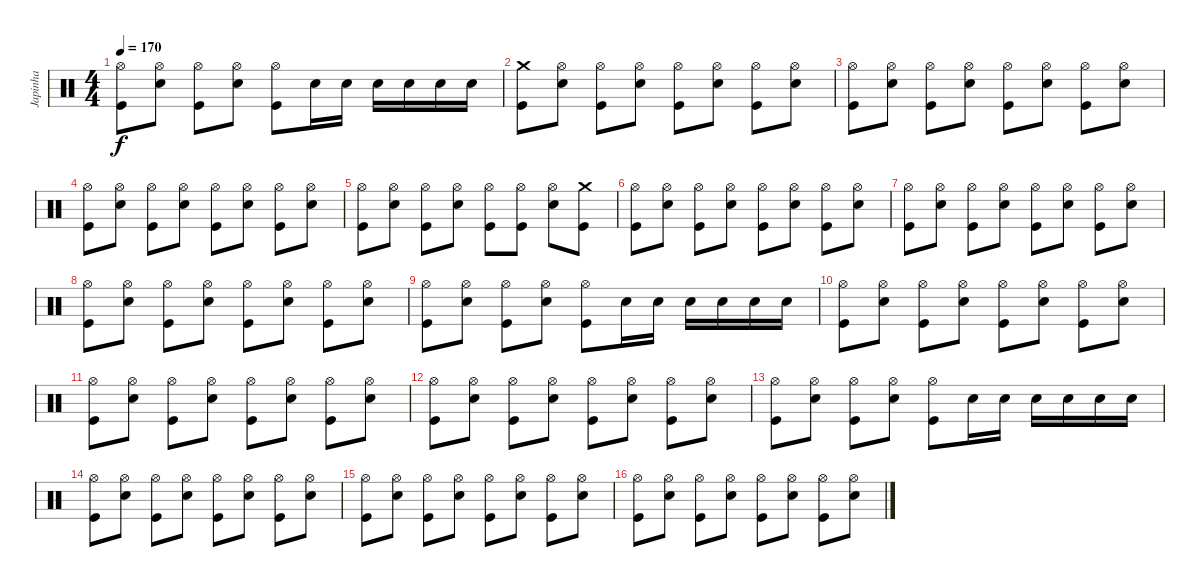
\track ("Japinha" "Japinha") {instrument percussion}
\staff {score}
\articulation defaults
\ts (4 4)
\tempo 170
\clef neutral
\ks c
("Hi-Hat (open)" "Kick (hit)").8{dy f} ("Hi-Hat (open)" "Electric Snare (hit)").8 ("Hi-Hat (open)" "Kick (hit)").8 ("Hi-Hat (open)" "Electric Snare (hit)").8 ("Hi-Hat (open)" "Kick (hit)").8 "Electric Snare (hit)".16 "Electric Snare (hit)".16 "Electric Snare (hit)".16 "Electric Snare (hit)".16 "Electric Snare (hit)".16 "Electric Snare (hit)".16 |
("Crash medium (hit)" "Kick (hit)").8 ("Hi-Hat (open)" "Electric Snare (hit)").8 ("Hi-Hat (open)" "Kick (hit)").8 ("Hi-Hat (open)" "Electric Snare (hit)").8 ("Hi-Hat (open)" "Kick (hit)").8 ("Hi-Hat (open)" "Electric Snare (hit)").8 ("Hi-Hat (open)" "Kick (hit)").8 ("Hi-Hat (open)" "Electric Snare (hit)").8 |
("Hi-Hat (open)" "Kick (hit)").8 ("Hi-Hat (open)" "Electric Snare (hit)").8 ("Hi-Hat (open)" "Kick (hit)").8 ("Hi-Hat (open)" "Electric Snare (hit)").8 ("Hi-Hat (open)" "Kick (hit)").8 ("Hi-Hat (open)" "Electric Snare (hit)").8 ("Hi-Hat (open)" "Kick (hit)").8 ("Hi-Hat (open)" "Electric Snare (hit)").8 |
("Hi-Hat (open)" "Kick (hit)").8 ("Hi-Hat (open)" "Electric Snare (hit)").8 ("Hi-Hat (open)" "Kick (hit)").8 ("Hi-Hat (open)" "Electric Snare (hit)").8 ("Hi-Hat (open)" "Kick (hit)").8 ("Hi-Hat (open)" "Electric Snare (hit)").8 ("Hi-Hat (open)" "Kick (hit)").8 ("Hi-Hat (open)" "Electric Snare (hit)").8 |
("Hi-Hat (open)" "Kick (hit)").8 ("Hi-Hat (open)" "Electric Snare (hit)").8 ("Hi-Hat (open)" "Kick (hit)").8 ("Hi-Hat (open)" "Electric Snare (hit)").8 ("Hi-Hat (open)" "Kick (hit)").8 ("Hi-Hat (open)" "Kick (hit)").8 ("Hi-Hat (open)" "Electric Snare (hit)").8 ("Crash medium (hit)" "Kick (hit)").8 |
("Hi-Hat (open)" "Kick (hit)").8 ("Hi-Hat (open)" "Electric Snare (hit)").8 ("Hi-Hat (open)" "Kick (hit)").8 ("Hi-Hat (open)" "Electric Snare (hit)").8 ("Hi-Hat (open)" "Kick (hit)").8 ("Hi-Hat (open)" "Electric Snare (hit)").8 ("Hi-Hat (open)" "Kick (hit)").8 ("Hi-Hat (open)" "Electric Snare (hit)").8 |
("Hi-Hat (open)" "Kick (hit)").8 ("Hi-Hat (open)" "Electric Snare (hit)").8 ("Hi-Hat (open)" "Kick (hit)").8 ("Hi-Hat (open)" "Electric Snare (hit)").8 ("Hi-Hat (open)" "Kick (hit)").8 ("Hi-Hat (open)" "Electric Snare (hit)").8 ("Hi-Hat (open)" "Kick (hit)").8 ("Hi-Hat (open)" "Electric Snare (hit)").8 |
("Hi-Hat (open)" "Kick (hit)").8 ("Hi-Hat (open)" "Electric Snare (hit)").8 ("Hi-Hat (open)" "Kick (hit)").8 ("Hi-Hat (open)" "Electric Snare (hit)").8 ("Hi-Hat (open)" "Kick (hit)").8 ("Hi-Hat (open)" "Electric Snare (hit)").8 ("Hi-Hat (open)" "Kick (hit)").8 ("Hi-Hat (open)" "Electric Snare (hit)").8 |
("Hi-Hat (open)" "Kick (hit)").8 ("Hi-Hat (open)" "Electric Snare (hit)").8 ("Hi-Hat (open)" "Kick (hit)").8 ("Hi-Hat (open)" "Electric Snare (hit)").8 ("Hi-Hat (open)" "Kick (hit)").8 "Electric Snare (hit)".16 "Electric Snare (hit)".16 "Electric Snare (hit)".16 "Electric Snare (hit)".16 "Electric Snare (hit)".16 "Electric Snare (hit)".16 |
("Hi-Hat (open)" "Kick (hit)").8 ("Hi-Hat (open)" "Electric Snare (hit)").8 ("Hi-Hat (open)" "Kick (hit)").8 ("Hi-Hat (open)" "Electric Snare (hit)").8 ("Hi-Hat (open)" "Kick (hit)").8 ("Hi-Hat (open)" "Electric Snare (hit)").8 ("Hi-Hat (open)" "Kick (hit)").8 ("Hi-Hat (open)" "Electric Snare (hit)").8 |
("Hi-Hat (open)" "Kick (hit)").8 ("Hi-Hat (open)" "Electric Snare (hit)").8 ("Hi-Hat (open)" "Kick (hit)").8 ("Hi-Hat (open)" "Electric Snare (hit)").8 ("Hi-Hat (open)" "Kick (hit)").8 ("Hi-Hat (open)" "Electric Snare (hit)").8 ("Hi-Hat (open)" "Kick (hit)").8 ("Hi-Hat (open)" "Electric Snare (hit)").8 |
("Hi-Hat (open)" "Kick (hit)").8 ("Hi-Hat (open)" "Electric Snare (hit)").8 ("Hi-Hat (open)" "Kick (hit)").8 ("Hi-Hat (open)" "Electric Snare (hit)").8 ("Hi-Hat (open)" "Kick (hit)").8 ("Hi-Hat (open)" "Electric Snare (hit)").8 ("Hi-Hat (open)" "Kick (hit)").8 ("Hi-Hat (open)" "Electric Snare (hit)").8 |
("Hi-Hat (open)" "Kick (hit)").8 ("Hi-Hat (open)" "Electric Snare (hit)").8 ("Hi-Hat (open)" "Kick (hit)").8 ("Hi-Hat (open)" "Electric Snare (hit)").8 ("Hi-Hat (open)" "Kick (hit)").8 "Electric Snare (hit)".16 "Electric Snare (hit)".16 "Electric Snare (hit)".16 "Electric Snare (hit)".16 "Electric Snare (hit)".16 "Electric Snare (hit)".16 |
("Hi-Hat (open)" "Kick (hit)").8 ("Hi-Hat (open)" "Electric Snare (hit)").8 ("Hi-Hat (open)" "Kick (hit)").8 ("Hi-Hat (open)" "Electric Snare (hit)").8 ("Hi-Hat (open)" "Kick (hit)").8 ("Hi-Hat (open)" "Electric Snare (hit)").8 ("Hi-Hat (open)" "Kick (hit)").8 ("Hi-Hat (open)" "Electric Snare (hit)").8 |
("Hi-Hat (open)" "Kick (hit)").8 ("Hi-Hat (open)" "Electric Snare (hit)").8 ("Hi-Hat (open)" "Kick (hit)").8 ("Hi-Hat (open)" "Electric Snare (hit)").8 ("Hi-Hat (open)" "Kick (hit)").8 ("Hi-Hat (open)" "Electric Snare (hit)").8 ("Hi-Hat (open)" "Kick (hit)").8 ("Hi-Hat (open)" "Electric Snare (hit)").8 |
("Hi-Hat (open)" "Kick (hit)").8 ("Hi-Hat (open)" "Electric Snare (hit)").8 ("Hi-Hat (open)" "Kick (hit)").8 ("Hi-Hat (open)" "Electric Snare (hit)").8 ("Hi-Hat (open)" "Kick (hit)").8 ("Hi-Hat (open)" "Electric Snare (hit)").8 ("Hi-Hat (open)" "Kick (hit)").8 ("Hi-Hat (open)" "Electric Snare (hit)").8
